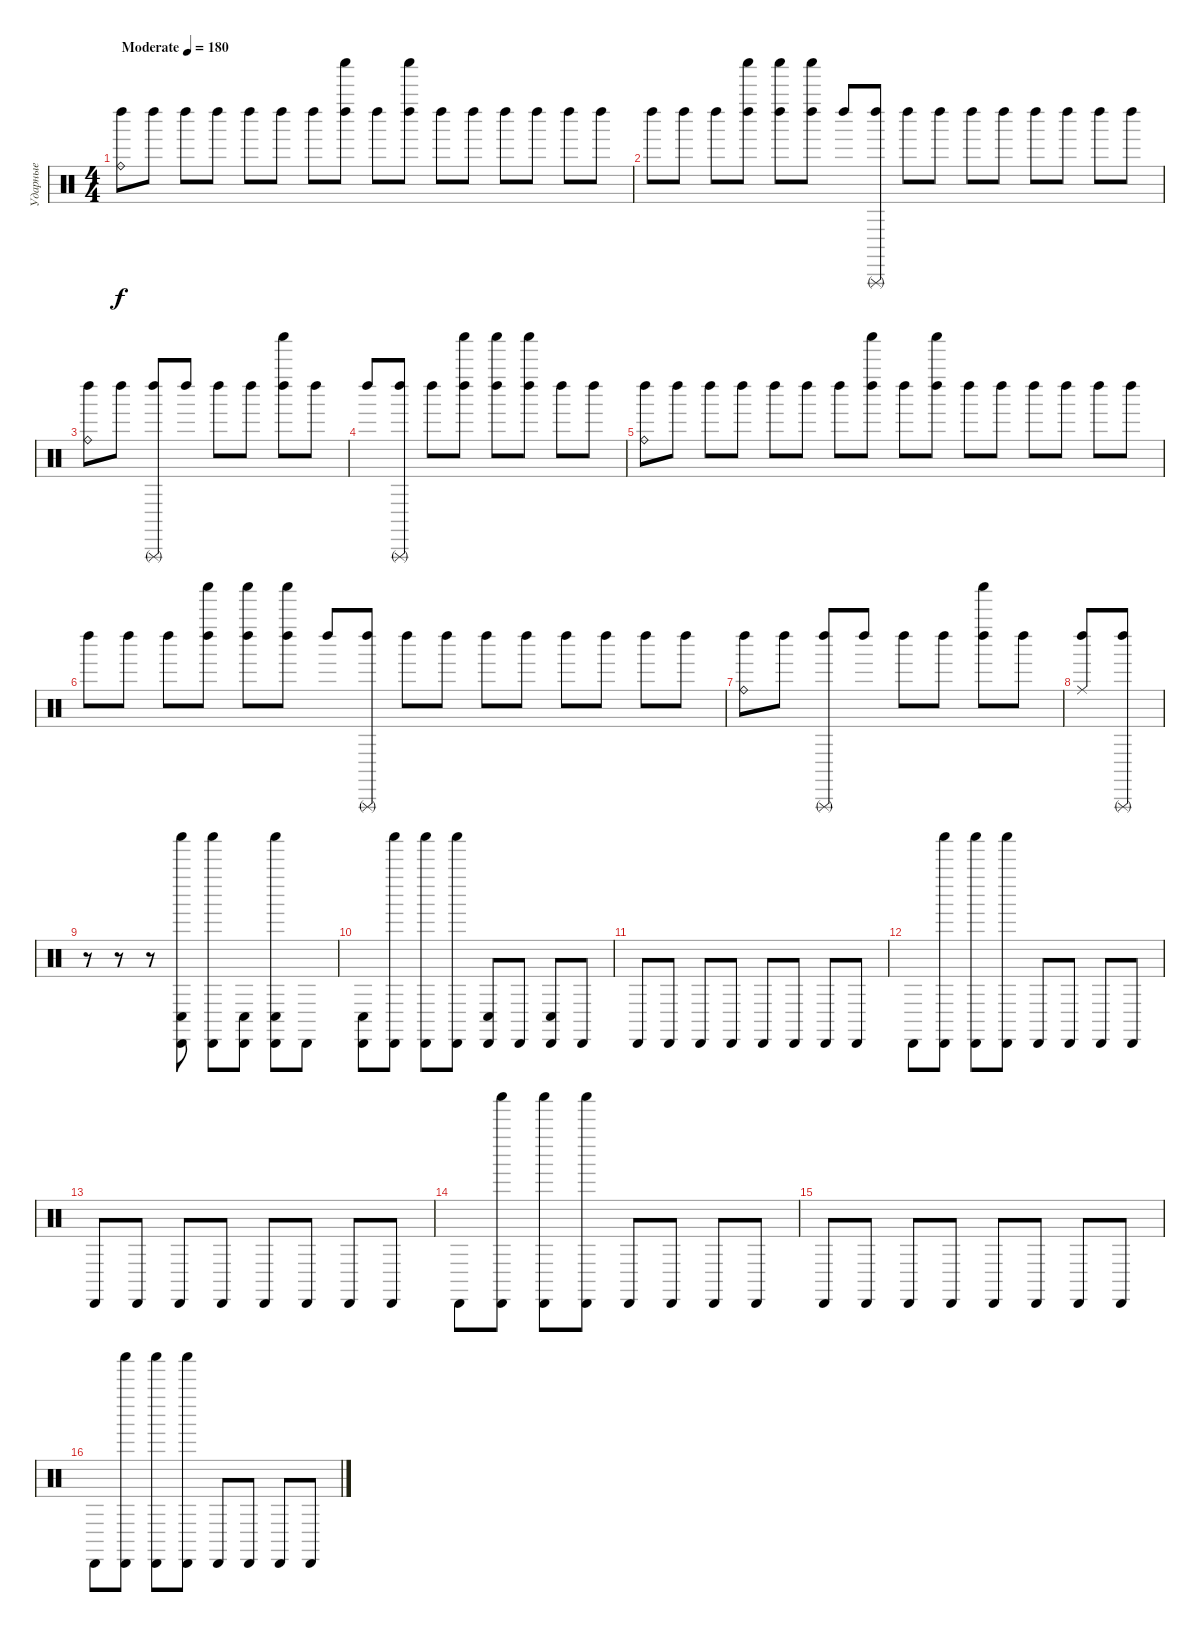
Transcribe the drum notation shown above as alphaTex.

\track ("Ударные" "Ударные") {instrument percussion}
\staff {score}
\articulation defaults
\ts (4 4)
\tempo (180 "Moderate")
\clef neutral
\ks c
("Left Maraca (hit)" "Ride (bell)").8{dy f} "Left Maraca (hit)".8 "Left Maraca (hit)".8 "Left Maraca (hit)".8 "Left Maraca (hit)".8 "Left Maraca (hit)".8 "Left Maraca (hit)".8 ("Left Maraca (hit)" "Shaker (hit)").8 "Left Maraca (hit)".8 ("Left Maraca (hit)" "Shaker (hit)").8 "Left Maraca (hit)".8 "Left Maraca (hit)".8 "Left Maraca (hit)".8 "Left Maraca (hit)".8 "Left Maraca (hit)".8 "Left Maraca (hit)".8 |
"Left Maraca (hit)".8 "Left Maraca (hit)".8 "Left Maraca (hit)".8 ("Left Maraca (hit)" "Shaker (hit)").8 ("Left Maraca (hit)" "Shaker (hit)").8 ("Left Maraca (hit)" "Shaker (hit)").8 "Left Maraca (hit)".8 ("Left Maraca (hit)" "Triangle (rnute)").8 "Left Maraca (hit)".8 "Left Maraca (hit)".8 "Left Maraca (hit)".8 "Left Maraca (hit)".8 "Left Maraca (hit)".8 "Left Maraca (hit)".8 "Left Maraca (hit)".8 "Left Maraca (hit)".8 |
("Left Maraca (hit)" "Ride (bell)").8 "Left Maraca (hit)".8 ("Left Maraca (hit)" "Triangle (rnute)").8 "Left Maraca (hit)".8 "Left Maraca (hit)".8 "Left Maraca (hit)".8 ("Left Maraca (hit)" "Shaker (hit)").8 "Left Maraca (hit)".8 |
"Left Maraca (hit)".8 ("Left Maraca (hit)" "Triangle (rnute)").8 "Left Maraca (hit)".8 ("Left Maraca (hit)" "Shaker (hit)").8 ("Left Maraca (hit)" "Shaker (hit)").8 ("Left Maraca (hit)" "Shaker (hit)").8 "Left Maraca (hit)".8 "Left Maraca (hit)".8 |
("Left Maraca (hit)" "Ride (bell)").8 "Left Maraca (hit)".8 "Left Maraca (hit)".8 "Left Maraca (hit)".8 "Left Maraca (hit)".8 "Left Maraca (hit)".8 "Left Maraca (hit)".8 ("Left Maraca (hit)" "Shaker (hit)").8 "Left Maraca (hit)".8 ("Left Maraca (hit)" "Shaker (hit)").8 "Left Maraca (hit)".8 "Left Maraca (hit)".8 "Left Maraca (hit)".8 "Left Maraca (hit)".8 "Left Maraca (hit)".8 "Left Maraca (hit)".8 |
"Left Maraca (hit)".8 "Left Maraca (hit)".8 "Left Maraca (hit)".8 ("Left Maraca (hit)" "Shaker (hit)").8 ("Left Maraca (hit)" "Shaker (hit)").8 ("Left Maraca (hit)" "Shaker (hit)").8 "Left Maraca (hit)".8 ("Left Maraca (hit)" "Triangle (rnute)").8 "Left Maraca (hit)".8 "Left Maraca (hit)".8 "Left Maraca (hit)".8 "Left Maraca (hit)".8 "Left Maraca (hit)".8 "Left Maraca (hit)".8 "Left Maraca (hit)".8 "Left Maraca (hit)".8 |
("Left Maraca (hit)" "Ride (bell)").8 "Left Maraca (hit)".8 ("Left Maraca (hit)" "Triangle (rnute)").8 "Left Maraca (hit)".8 "Left Maraca (hit)".8 "Left Maraca (hit)".8 ("Left Maraca (hit)" "Shaker (hit)").8 "Left Maraca (hit)".8 |
("Left Maraca (hit)" "Ride (middle)").8 ("Left Maraca (hit)" "Triangle (rnute)").8 |
r.8 r.8 r.8 ("Shaker (hit)" "Cabasa (hit)" "Conga low (hit)").8 ("Shaker (hit)" "Cabasa (hit)").8 ("Cabasa (hit)" "Conga low (hit)").8 ("Shaker (hit)" "Cabasa (hit)" "Conga low (hit)").8 "Cabasa (hit)".8 |
("Cabasa (hit)" "Conga low (hit)").8 ("Shaker (hit)" "Cabasa (hit)").8 ("Shaker (hit)" "Cabasa (hit)").8 ("Shaker (hit)" "Cabasa (hit)").8 ("Cabasa (hit)" "Conga low (hit)").8 "Cabasa (hit)".8 ("Cabasa (hit)" "Conga low (hit)").8 "Cabasa (hit)".8 |
"Cabasa (hit)".8 "Cabasa (hit)".8 "Cabasa (hit)".8 "Cabasa (hit)".8 "Cabasa (hit)".8 "Cabasa (hit)".8 "Cabasa (hit)".8 "Cabasa (hit)".8 |
"Cabasa (hit)".8 ("Shaker (hit)" "Cabasa (hit)").8 ("Shaker (hit)" "Cabasa (hit)").8 ("Shaker (hit)" "Cabasa (hit)").8 "Cabasa (hit)".8 "Cabasa (hit)".8 "Cabasa (hit)".8 "Cabasa (hit)".8 |
"Cabasa (hit)".8 "Cabasa (hit)".8 "Cabasa (hit)".8 "Cabasa (hit)".8 "Cabasa (hit)".8 "Cabasa (hit)".8 "Cabasa (hit)".8 "Cabasa (hit)".8 |
"Cabasa (hit)".8 ("Shaker (hit)" "Cabasa (hit)").8 ("Shaker (hit)" "Cabasa (hit)").8 ("Shaker (hit)" "Cabasa (hit)").8 "Cabasa (hit)".8 "Cabasa (hit)".8 "Cabasa (hit)".8 "Cabasa (hit)".8 |
"Cabasa (hit)".8 "Cabasa (hit)".8 "Cabasa (hit)".8 "Cabasa (hit)".8 "Cabasa (hit)".8 "Cabasa (hit)".8 "Cabasa (hit)".8 "Cabasa (hit)".8 |
"Cabasa (hit)".8 ("Shaker (hit)" "Cabasa (hit)").8 ("Shaker (hit)" "Cabasa (hit)").8 ("Shaker (hit)" "Cabasa (hit)").8 "Cabasa (hit)".8 "Cabasa (hit)".8 "Cabasa (hit)".8 "Cabasa (hit)".8
